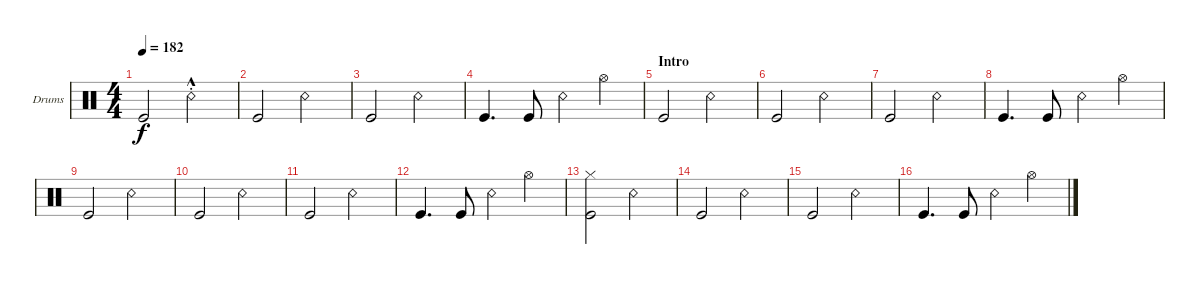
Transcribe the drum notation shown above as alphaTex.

\defaultSystemsLayout 4
\bracketExtendMode groupsimilarinstruments
\firstSystemTrackNameOrientation horizontal
\otherSystemsTrackNameOrientation horizontal
\track ("Drumkit" "Drums") {instrument percussion}
\staff {score}
\articulation defaults
\ts (4 4)
\tempo 182
\clef neutral
\ks c "Kick (hit)".2{dy f} "Snare (rim shot)"{hac st}.2
|
"Kick (hit)".2 "Snare (rim shot)".2 |
"Kick (hit)".2 "Snare (rim shot)".2 |
"Kick (hit)".4{d} "Kick (hit)".8 "Snare (rim shot)".4 "Hi-Hat (open)".4 |
\section ("" "Intro")
\scale
0.472222 "Kick (hit)".2 "Snare (rim shot)".2 |
\scale
0.263889 "Kick (hit)".2 "Snare (rim shot)".2 |
\scale
0.263889 "Kick (hit)".2 "Snare (rim shot)".2 |
\scale
0.333333 "Kick (hit)".4{d} "Kick (hit)".8 "Snare (rim shot)".4 "Hi-Hat (open)".4 |
\scale
0.333333 "Kick (hit)".2 "Snare (rim shot)".2 |
\scale
0.333333 "Kick (hit)".2 "Snare (rim shot)".2 |
\scale
0.333333 "Kick (hit)".2 "Snare (rim shot)".2 |
\scale
0.333333 "Kick (hit)".4{d} "Kick (hit)".8 "Snare (rim shot)".4 "Hi-Hat (open)".4 |
("Kick (hit)" "Hi-Hat (closed)").2 "Snare (rim shot)".2 |
"Kick (hit)".2 "Snare (rim shot)".2 |
"Kick (hit)".2 "Snare (rim shot)".2 |
"Kick (hit)".4{d} "Kick (hit)".8 "Snare (rim shot)".4 "Hi-Hat (open)".4
